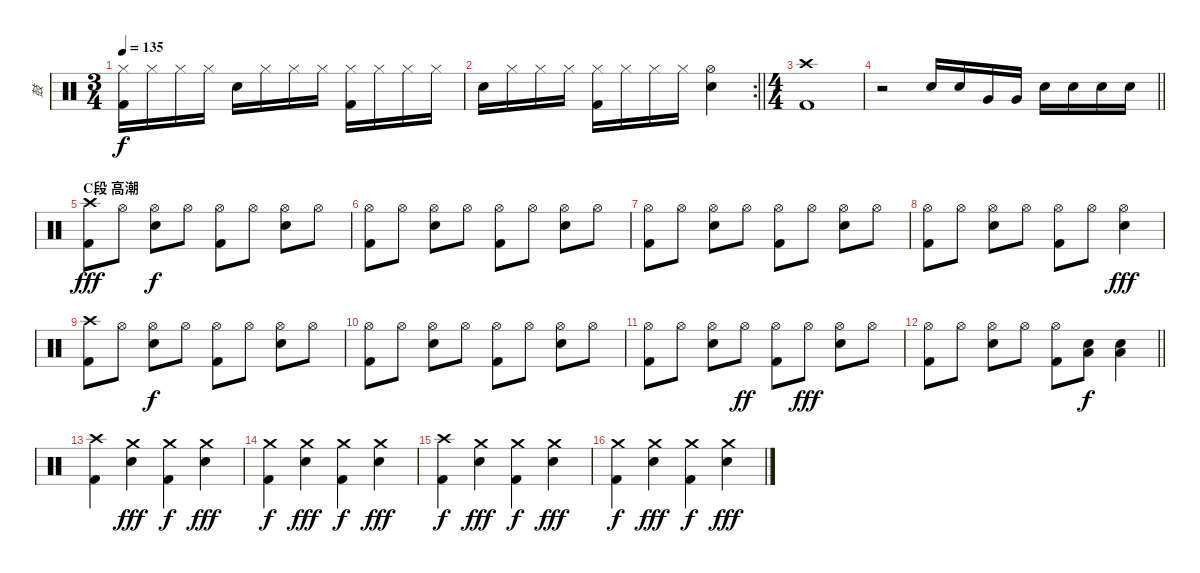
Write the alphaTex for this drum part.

\track ("鼓" "鼓") {instrument percussion}
\staff {score}
\articulation defaults
\ts (3 4)
\tempo 135
\clef neutral
\ks c
("Hi-Hat (closed)" "Kick (hit) 2").16{dy f} "Hi-Hat (closed)".16 "Hi-Hat (closed)".16 "Hi-Hat (closed)".16 "Electric Snare (hit)".16 "Hi-Hat (closed)".16 "Hi-Hat (closed)".16 "Hi-Hat (closed)".16 ("Hi-Hat (closed)" "Kick (hit) 2").16 "Hi-Hat (closed)".16 "Hi-Hat (closed)".16 "Hi-Hat (closed)".16 |
\rc 2
\barLineRight lightlight "Electric Snare (hit)".16 "Hi-Hat (closed)".16 "Hi-Hat (closed)".16 "Hi-Hat (closed)".16
("Hi-Hat (closed)" "Kick (hit) 2").16 "Hi-Hat (closed)".16 "Hi-Hat (closed)".16 "Hi-Hat (closed)".16 ("Hi-Hat (open)" "Electric Snare (hit)").4 |
\ts (4 4)
("Crash high (hit)" "Kick (hit) 2").1 |
\barLineRight lightlight
r.2 "Electric Snare (hit)".16 "Electric Snare (hit)".16 "Very Low Tom (hit)".16 "Very Low Tom (hit)".16 "Electric Snare (hit)".16 "Electric Snare (hit)".16 "Electric Snare (hit)".16 "Electric Snare (hit)".16 |
\section ("" "C段 高潮")
("Crash high (hit)" "Kick (hit) 2").8{dy fff} "Hi-Hat (open)".8 ("Hi-Hat (open)" "Electric Snare (hit)").8{dy f} "Hi-Hat (open)".8 ("Hi-Hat (open)" "Kick (hit) 2").8 "Hi-Hat (open)".8 ("Hi-Hat (open)" "Electric Snare (hit)").8 "Hi-Hat (open)".8 |
("Hi-Hat (open)" "Kick (hit) 2").8 "Hi-Hat (open)".8 ("Hi-Hat (open)" "Electric Snare (hit)").8 "Hi-Hat (open)".8 ("Hi-Hat (open)" "Kick (hit) 2").8 "Hi-Hat (open)".8 ("Hi-Hat (open)" "Electric Snare (hit)").8 "Hi-Hat (open)".8 |
("Hi-Hat (open)" "Kick (hit) 2").8 "Hi-Hat (open)".8 ("Hi-Hat (open)" "Electric Snare (hit)").8 "Hi-Hat (open)".8 ("Hi-Hat (open)" "Kick (hit) 2").8 "Hi-Hat (open)".8 ("Hi-Hat (open)" "Electric Snare (hit)").8 "Hi-Hat (open)".8 |
("Hi-Hat (open)" "Kick (hit) 2").8 "Hi-Hat (open)".8 ("Hi-Hat (open)" "Electric Snare (hit)").8 "Hi-Hat (open)".8 ("Hi-Hat (open)" "Kick (hit) 2").8 "Hi-Hat (open)".8 ("Hi-Hat (open)" "Electric Snare (hit)").4{dy fff} |
("Crash high (hit)" "Kick (hit) 2").8 "Hi-Hat (open)".8 ("Hi-Hat (open)" "Electric Snare (hit)").8{dy f} "Hi-Hat (open)".8 ("Hi-Hat (open)" "Kick (hit) 2").8 "Hi-Hat (open)".8 ("Hi-Hat (open)" "Electric Snare (hit)").8 "Hi-Hat (open)".8 |
("Hi-Hat (open)" "Kick (hit) 2").8 "Hi-Hat (open)".8 ("Hi-Hat (open)" "Electric Snare (hit)").8 "Hi-Hat (open)".8 ("Hi-Hat (open)" "Kick (hit) 2").8 "Hi-Hat (open)".8 ("Hi-Hat (open)" "Electric Snare (hit)").8 "Hi-Hat (open)".8 |
("Hi-Hat (open)" "Kick (hit) 2").8 "Hi-Hat (open)".8 ("Hi-Hat (open)" "Electric Snare (hit)").8 "Hi-Hat (open)".8{dy ff} ("Hi-Hat (open)" "Kick (hit) 2").8 "Hi-Hat (open)".8{dy fff} ("Hi-Hat (open)" "Electric Snare (hit)").8 "Hi-Hat (open)".8 |
\barLineRight lightlight
("Hi-Hat (open)" "Kick (hit) 2").8 "Hi-Hat (open)".8 ("Hi-Hat (open)" "Electric Snare (hit)").8 "Hi-Hat (open)".8 ("Hi-Hat (open)" "Kick (hit) 2").8 ("Electric Snare (hit)" "Low Tom (hit)").8{dy f} ("Electric Snare (hit)" "Low Tom (hit)").4 |
("Crash high (hit)" "Kick (hit) 2").4 ("Crash medium (hit)" "Electric Snare (hit)").4{dy fff} ("Crash medium (hit)" "Kick (hit) 2").4{dy f} ("Crash medium (hit)" "Electric Snare (hit)").4{dy fff} |
("Crash medium (hit)" "Kick (hit) 2").4{dy f} ("Crash medium (hit)" "Electric Snare (hit)").4{dy fff} ("Crash medium (hit)" "Kick (hit) 2").4{dy f} ("Crash medium (hit)" "Electric Snare (hit)").4{dy fff} |
("Crash high (hit)" "Kick (hit) 2").4{dy f} ("Crash medium (hit)" "Electric Snare (hit)").4{dy fff} ("Crash medium (hit)" "Kick (hit) 2").4{dy f} ("Crash medium (hit)" "Electric Snare (hit)").4{dy fff} |
("Crash medium (hit)" "Kick (hit) 2").4{dy f} ("Crash medium (hit)" "Electric Snare (hit)").4{dy fff} ("Crash medium (hit)" "Kick (hit) 2").4{dy f} ("Crash medium (hit)" "Electric Snare (hit)").4{dy fff}
